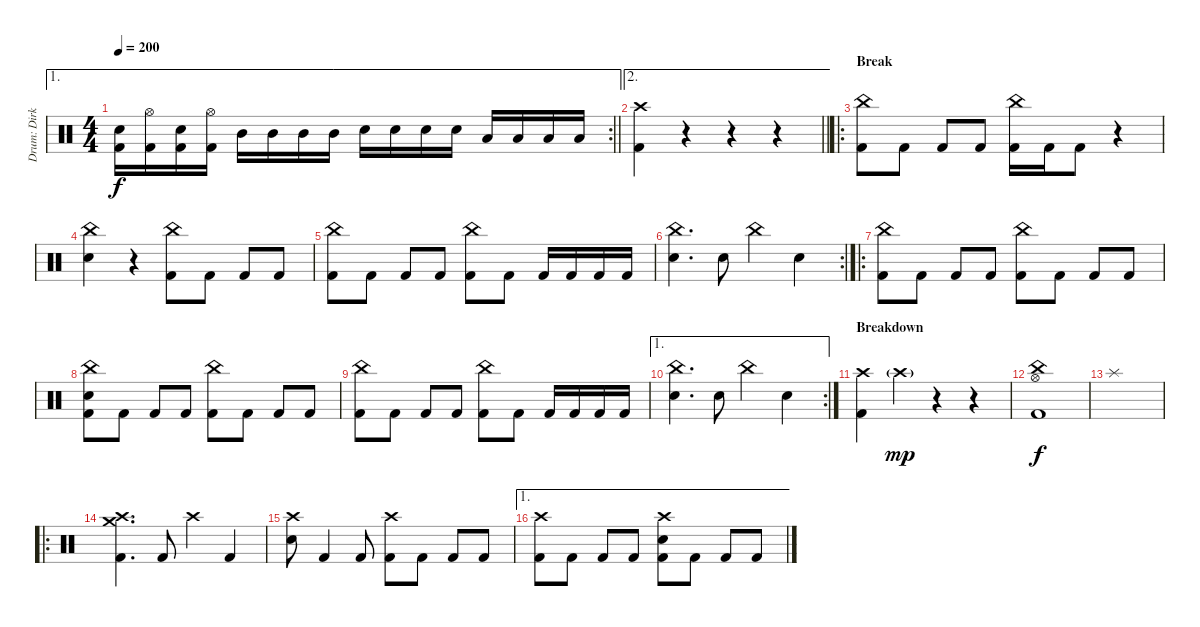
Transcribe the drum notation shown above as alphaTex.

\track ("Drum: Dirk" "Drum: Dirk") {instrument percussion}
\staff {score}
\articulation defaults
\ae 1
\rc 2
\ts (4 4)
\tempo 200
\clef neutral
\barLineRight lightlight
\ks c
("Electric Snare (hit)" "Kick (hit) 2").16{dy f} ("Hi-Hat (open)" "Kick (hit) 2").16 ("Electric Snare (hit)" "Kick (hit) 2").16 ("Hi-Hat (open)" "Kick (hit) 2").16 "Mid Tom (hit)".16 "Mid Tom (hit)".16 "Mid Tom (hit)".16 "Mid Tom (hit)".16 "Electric Snare (hit)".16 "Electric Snare (hit)".16 "Electric Snare (hit)".16 "Electric Snare (hit)".16 "Low Tom (hit)".16 "Low Tom (hit)".16 "Low Tom (hit)".16 "Low Tom (hit)".16 |
\ae 2
\barLineRight lightlight
("Crash high (hit)" "Kick (hit) 2").4 r.4{volume 0} r.4 r.4 |
\ro
\section ("" "Break")
("China (hit)" "Kick (hit) 2").8{volume 12} "Kick (hit) 2".8 "Kick (hit) 2".8 "Kick (hit) 2".8 ("China (hit)" "Kick (hit) 2").16 "Kick (hit) 2".16 "Kick (hit) 2".8 r.4 |
("China (hit)" "Electric Snare (hit)").4 r.4 ("China (hit)" "Kick (hit) 2").8 "Kick (hit) 2".8 "Kick (hit) 2".8 "Kick (hit) 2".8 |
("China (hit)" "Kick (hit) 2").8 "Kick (hit) 2".8 "Kick (hit) 2".8 "Kick (hit) 2".8 ("China (hit)" "Kick (hit) 2").8 "Kick (hit) 2".8 "Kick (hit) 2".16 "Kick (hit) 2".16 "Kick (hit) 2".16 "Kick (hit) 2".16 |
\rc 2
("China (hit)" "Electric Snare (hit)").4{d} "Electric Snare (hit)".8 "China (hit)".4 "Electric Snare (hit)".4 |
\ro
("China (hit)" "Kick (hit) 2").8 "Kick (hit) 2".8 "Kick (hit) 2".8 "Kick (hit) 2".8 ("China (hit)" "Kick (hit) 2").8 "Kick (hit) 2".8 "Kick (hit) 2".8 "Kick (hit) 2".8 |
("China (hit)" "Electric Snare (hit)" "Kick (hit) 2").8 "Kick (hit) 2".8 "Kick (hit) 2".8 "Kick (hit) 2".8 ("China (hit)" "Kick (hit) 2").8 "Kick (hit) 2".8 "Kick (hit) 2".8 "Kick (hit) 2".8 |
("China (hit)" "Kick (hit) 2").8 "Kick (hit) 2".8 "Kick (hit) 2".8 "Kick (hit) 2".8 ("China (hit)" "Kick (hit) 2").8 "Kick (hit) 2".8 "Kick (hit) 2".16 "Kick (hit) 2".16 "Kick (hit) 2".16 "Kick (hit) 2".16 |
\ae 1
\rc 2
("China (hit)" "Electric Snare (hit)").4{d} "Electric Snare (hit)".8 "China (hit)".4 "Electric Snare (hit)".4 |
\section ("" "Breakdown")
("Crash high (hit)" "Kick (hit) 2").4 "Crash high (hit)"{g}.4{dy mp} r.4 r.4 |
("China (hit)" "Hi-Hat (open)" "Kick (hit) 2").1{dy f} |
"Splash (hit)".1 |
\ro
("Crash medium (hit)" "Crash high (hit)" "Kick (hit) 2").4{d} "Kick (hit) 2".8 "Crash high (hit)".4 "Kick (hit) 2".4 |
("Crash high (hit)" "Electric Snare (hit)").8 "Kick (hit) 2".4 "Kick (hit) 2".8 ("Crash high (hit)" "Kick (hit) 2").8 "Kick (hit) 2".8 "Kick (hit) 2".8 "Kick (hit) 2".8 |
\ae 1
("Crash high (hit)" "Kick (hit) 2").8 "Kick (hit) 2".8 "Kick (hit) 2".8 "Kick (hit) 2".8 ("Crash high (hit)" "Electric Snare (hit)" "Kick (hit) 2").8 "Kick (hit) 2".8 "Kick (hit) 2".8 "Kick (hit) 2".8
